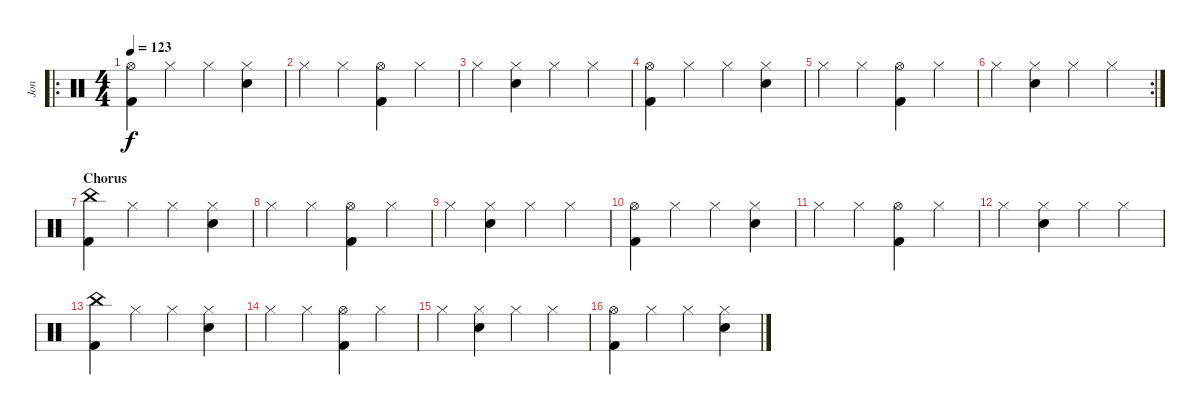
\track ("Jon" "Jon") {instrument percussion}
\staff {score}
\articulation defaults
\ro
\ts (4 4)
\tempo 123
\clef neutral
\ks c
("Hi-Hat (open)" "Kick (hit) 2").4{dy f} "Hi-Hat (closed)".4 "Hi-Hat (closed)".4 ("Hi-Hat (closed)" "Snare (hit) 2").4 |
"Hi-Hat (closed)".4 "Hi-Hat (closed)".4 ("Hi-Hat (open)" "Kick (hit) 2").4 "Hi-Hat (closed)".4 |
"Hi-Hat (closed)".4 ("Hi-Hat (closed)" "Snare (hit) 2").4 "Hi-Hat (closed)".4 "Hi-Hat (closed)".4 |
("Hi-Hat (open)" "Kick (hit) 2").4 "Hi-Hat (closed)".4 "Hi-Hat (closed)".4 ("Hi-Hat (closed)" "Snare (hit) 2").4 |
"Hi-Hat (closed)".4 "Hi-Hat (closed)".4 ("Hi-Hat (open)" "Kick (hit) 2").4 "Hi-Hat (closed)".4 |
\rc 2 "Hi-Hat (closed)".4
("Hi-Hat (closed)" "Snare (hit) 2").4 "Hi-Hat (closed)".4 "Hi-Hat (closed)".4 |
\section ("" "Chorus")
("China (hit)" "Kick (hit) 2").4 "Hi-Hat (closed)".4 "Hi-Hat (closed)".4 ("Hi-Hat (closed)" "Snare (hit) 2").4 |
"Hi-Hat (closed)".4 "Hi-Hat (closed)".4 ("Hi-Hat (open)" "Kick (hit) 2").4 "Hi-Hat (closed)".4 |
"Hi-Hat (closed)".4 ("Hi-Hat (closed)" "Snare (hit) 2").4 "Hi-Hat (closed)".4 "Hi-Hat (closed)".4 |
("Hi-Hat (open)" "Kick (hit) 2").4 "Hi-Hat (closed)".4 "Hi-Hat (closed)".4 ("Hi-Hat (closed)" "Snare (hit) 2").4 |
"Hi-Hat (closed)".4 "Hi-Hat (closed)".4 ("Hi-Hat (open)" "Kick (hit) 2").4 "Hi-Hat (closed)".4 |
"Hi-Hat (closed)".4 ("Hi-Hat (closed)" "Snare (hit) 2").4 "Hi-Hat (closed)".4 "Hi-Hat (closed)".4 |
("China (hit)" "Kick (hit) 2").4 "Hi-Hat (closed)".4 "Hi-Hat (closed)".4 ("Hi-Hat (closed)" "Snare (hit) 2").4 |
"Hi-Hat (closed)".4 "Hi-Hat (closed)".4 ("Hi-Hat (open)" "Kick (hit) 2").4 "Hi-Hat (closed)".4 |
"Hi-Hat (closed)".4 ("Hi-Hat (closed)" "Snare (hit) 2").4 "Hi-Hat (closed)".4 "Hi-Hat (closed)".4 |
("Hi-Hat (open)" "Kick (hit) 2").4 "Hi-Hat (closed)".4 "Hi-Hat (closed)".4 ("Hi-Hat (closed)" "Snare (hit) 2").4
